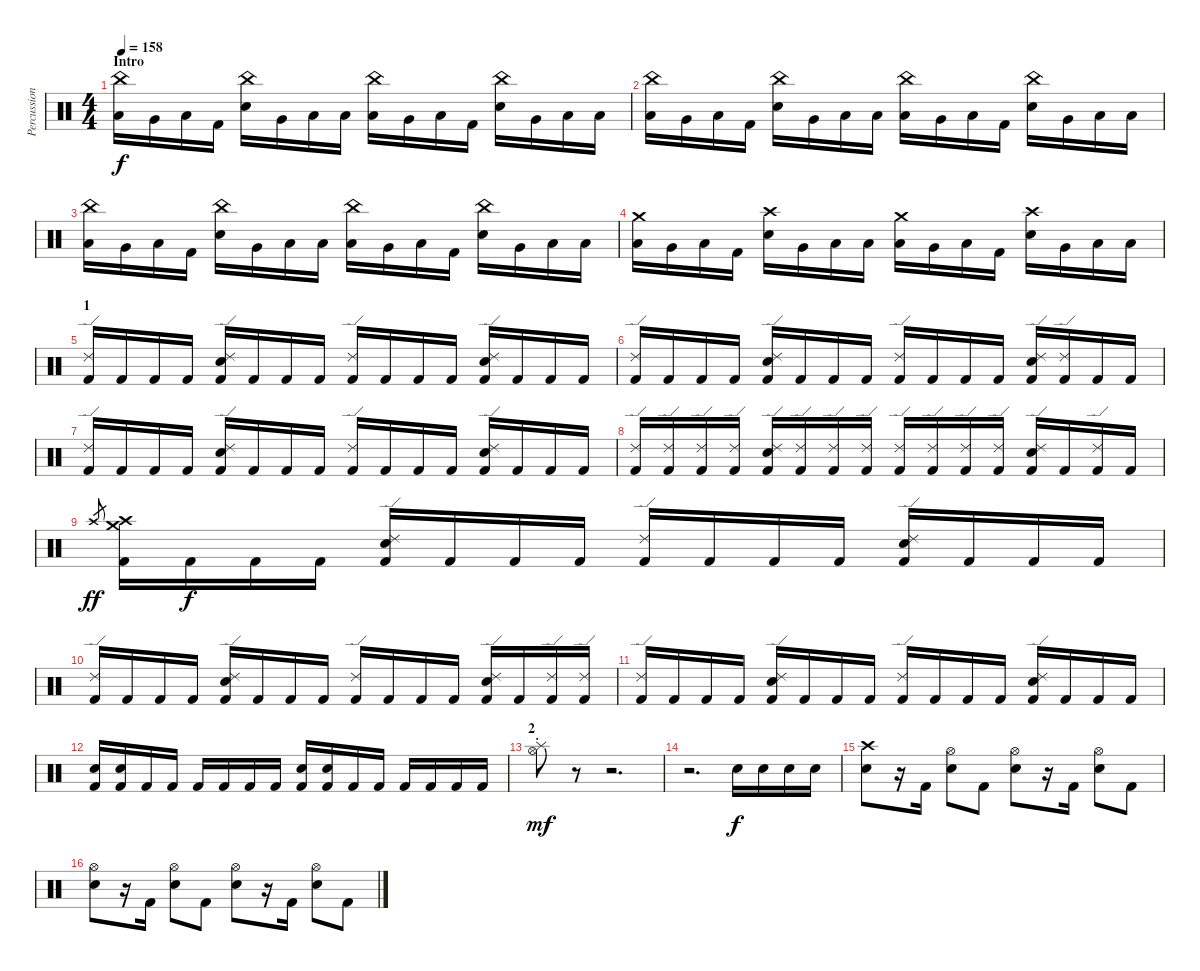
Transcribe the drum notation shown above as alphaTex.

\track ("Percussions" "Percussion") {instrument percussion}
\staff {score}
\articulation defaults
\ts (4 4)
\section ("" "Intro")
\tempo 158
\clef neutral
\ks c
("China (hit)" "Low Tom (hit)").16{dy f} "Very Low Tom (hit)".16 "Low Floor Tom (hit)".16 "Kick (hit) 2".16 ("China (hit)" "Electric Snare (hit)").16 "Very Low Tom (hit)".16 "Low Floor Tom (hit)".16 "Low Floor Tom (hit)".16 ("China (hit)" "Low Tom (hit)").16 "Very Low Tom (hit)".16 "Low Floor Tom (hit)".16 "Kick (hit) 2".16 ("China (hit)" "Electric Snare (hit)").16 "Very Low Tom (hit)".16 "Low Floor Tom (hit)".16 "Low Floor Tom (hit)".16 |
("China (hit)" "Low Tom (hit)").16 "Very Low Tom (hit)".16 "Low Floor Tom (hit)".16 "Kick (hit) 2".16 ("China (hit)" "Electric Snare (hit)").16 "Very Low Tom (hit)".16 "Low Floor Tom (hit)".16 "Low Floor Tom (hit)".16 ("China (hit)" "Low Tom (hit)").16 "Very Low Tom (hit)".16 "Low Floor Tom (hit)".16 "Kick (hit) 2".16 ("China (hit)" "Electric Snare (hit)").16 "Very Low Tom (hit)".16 "Low Floor Tom (hit)".16 "Low Floor Tom (hit)".16 |
("China (hit)" "Low Tom (hit)").16 "Very Low Tom (hit)".16 "Low Floor Tom (hit)".16 "Kick (hit) 2".16 ("China (hit)" "Electric Snare (hit)").16 "Very Low Tom (hit)".16 "Low Floor Tom (hit)".16 "Low Floor Tom (hit)".16 ("China (hit)" "Low Tom (hit)").16 "Very Low Tom (hit)".16 "Low Floor Tom (hit)".16 "Kick (hit) 2".16 ("China (hit)" "Electric Snare (hit)").16 "Very Low Tom (hit)".16 "Low Floor Tom (hit)".16 "Low Floor Tom (hit)".16 |
("Crash medium (hit)" "Low Tom (hit)").16 "Very Low Tom (hit)".16 "Low Floor Tom (hit)".16 "Kick (hit) 2".16 ("Crash high (hit)" "Electric Snare (hit)").16 "Very Low Tom (hit)".16 "Low Floor Tom (hit)".16 "Low Floor Tom (hit)".16 ("Crash medium (hit)" "Low Tom (hit)").16 "Very Low Tom (hit)".16 "Low Floor Tom (hit)".16 "Kick (hit) 2".16 ("Crash high (hit)" "Electric Snare (hit)").16 "Very Low Tom (hit)".16 "Low Floor Tom (hit)".16 "Low Floor Tom (hit)".16 |
\section ("" "1")
("Ride (edge) 2" "Kick (hit) 2").16 "Kick (hit) 2".16 "Kick (hit) 2".16 "Kick (hit) 2".16 ("Ride (edge) 2" "Electric Snare (hit)" "Kick (hit) 2").16 "Kick (hit) 2".16 "Kick (hit) 2".16 "Kick (hit) 2".16 ("Ride (edge) 2" "Kick (hit) 2").16 "Kick (hit) 2".16 "Kick (hit) 2".16 "Kick (hit) 2".16 ("Ride (edge) 2" "Electric Snare (hit)" "Kick (hit) 2").16 "Kick (hit) 2".16 "Kick (hit) 2".16 "Kick (hit) 2".16 |
("Ride (edge) 2" "Kick (hit) 2").16 "Kick (hit) 2".16 "Kick (hit) 2".16 "Kick (hit) 2".16 ("Ride (edge) 2" "Electric Snare (hit)" "Kick (hit) 2").16 "Kick (hit) 2".16 "Kick (hit) 2".16 "Kick (hit) 2".16 ("Ride (edge) 2" "Kick (hit) 2").16 "Kick (hit) 2".16 "Kick (hit) 2".16 "Kick (hit) 2".16 ("Ride (edge) 2" "Electric Snare (hit)" "Kick (hit) 2").16 ("Ride (edge) 2" "Kick (hit) 2").16 "Kick (hit) 2".16 "Kick (hit) 2".16 |
("Ride (edge) 2" "Kick (hit) 2").16 "Kick (hit) 2".16 "Kick (hit) 2".16 "Kick (hit) 2".16 ("Ride (edge) 2" "Electric Snare (hit)" "Kick (hit) 2").16 "Kick (hit) 2".16 "Kick (hit) 2".16 "Kick (hit) 2".16 ("Ride (edge) 2" "Kick (hit) 2").16 "Kick (hit) 2".16 "Kick (hit) 2".16 "Kick (hit) 2".16 ("Ride (edge) 2" "Electric Snare (hit)" "Kick (hit) 2").16 "Kick (hit) 2".16 "Kick (hit) 2".16 "Kick (hit) 2".16 |
("Ride (edge) 2" "Kick (hit) 2").16 ("Ride (edge) 2" "Kick (hit) 2").16 ("Ride (edge) 2" "Kick (hit) 2").16 ("Ride (edge) 2" "Kick (hit) 2").16 ("Ride (edge) 2" "Electric Snare (hit)" "Kick (hit) 2").16 ("Ride (edge) 2" "Kick (hit) 2").16 ("Ride (edge) 2" "Kick (hit) 2").16 ("Ride (edge) 2" "Kick (hit) 2").16 ("Ride (edge) 2" "Kick (hit) 2").16 ("Ride (edge) 2" "Kick (hit) 2").16 ("Ride (edge) 2" "Kick (hit) 2").16 ("Ride (edge) 2" "Kick (hit) 2").16 ("Ride (edge) 2" "Electric Snare (hit)" "Kick (hit) 2").16 "Kick (hit) 2".16 ("Ride (edge) 2" "Kick (hit) 2").16 "Kick (hit) 2".16 |
"Crash high (hit)".8{gr dy ff} ("Crash medium (hit)" "Crash high (hit)" "Kick (hit) 2").16 "Kick (hit) 2".16{dy f} "Kick (hit) 2".16 "Kick (hit) 2".16 ("Ride (edge) 2" "Electric Snare (hit)" "Kick (hit) 2").16 "Kick (hit) 2".16 "Kick (hit) 2".16 "Kick (hit) 2".16 ("Ride (edge) 2" "Kick (hit) 2").16 "Kick (hit) 2".16 "Kick (hit) 2".16 "Kick (hit) 2".16 ("Ride (edge) 2" "Electric Snare (hit)" "Kick (hit) 2").16 "Kick (hit) 2".16 "Kick (hit) 2".16 "Kick (hit) 2".16 |
("Ride (edge) 2" "Kick (hit) 2").16 "Kick (hit) 2".16 "Kick (hit) 2".16 "Kick (hit) 2".16 ("Ride (edge) 2" "Electric Snare (hit)" "Kick (hit) 2").16 "Kick (hit) 2".16 "Kick (hit) 2".16 "Kick (hit) 2".16 ("Ride (edge) 2" "Kick (hit) 2").16 "Kick (hit) 2".16 "Kick (hit) 2".16 "Kick (hit) 2".16 ("Ride (edge) 2" "Electric Snare (hit)" "Kick (hit) 2").16 "Kick (hit) 2".16 ("Ride (edge) 2" "Kick (hit) 2").16 ("Ride (edge) 2" "Kick (hit) 2").16 |
("Ride (edge) 2" "Kick (hit) 2").16 "Kick (hit) 2".16 "Kick (hit) 2".16 "Kick (hit) 2".16 ("Ride (edge) 2" "Electric Snare (hit)" "Kick (hit) 2").16 "Kick (hit) 2".16 "Kick (hit) 2".16 "Kick (hit) 2".16 ("Ride (edge) 2" "Kick (hit) 2").16 "Kick (hit) 2".16 "Kick (hit) 2".16 "Kick (hit) 2".16 ("Ride (edge) 2" "Electric Snare (hit)" "Kick (hit) 2").16 "Kick (hit) 2".16 "Kick (hit) 2".16 "Kick (hit) 2".16 |
("Electric Snare (hit)" "Kick (hit) 2").16 ("Electric Snare (hit)" "Kick (hit) 2").16 "Kick (hit) 2".16 "Kick (hit) 2".16 "Kick (hit) 2".16 "Kick (hit) 2".16 "Kick (hit) 2".16 "Kick (hit) 2".16 ("Electric Snare (hit)" "Kick (hit) 2").16 ("Electric Snare (hit)" "Kick (hit) 2").16 "Kick (hit) 2".16 "Kick (hit) 2".16 "Kick (hit) 2".16 "Kick (hit) 2".16 "Kick (hit) 2".16 "Kick (hit) 2".16 |
\section ("" "2")
("Splash (hit)"{st} "Hi-Hat (open)"{st}).8{dy mf} r.8 r.2{d} |
r.2{d} "Electric Snare (hit)".16{dy f} "Electric Snare (hit)".16 "Electric Snare (hit)".16 "Electric Snare (hit)".16 |
("Crash high (hit)" "Electric Snare (hit)").8 r.16 "Kick (hit) 2".16 ("Hi-Hat (open)" "Electric Snare (hit)").8 "Kick (hit) 2".8 ("Hi-Hat (open)" "Electric Snare (hit)").8 r.16 "Kick (hit) 2".16 ("Hi-Hat (open)" "Electric Snare (hit)").8 "Kick (hit) 2".8 |
("Hi-Hat (open)" "Electric Snare (hit)").8 r.16 "Kick (hit) 2".16 ("Hi-Hat (open)" "Electric Snare (hit)").8 "Kick (hit) 2".8 ("Hi-Hat (open)" "Electric Snare (hit)").8 r.16 "Kick (hit) 2".16 ("Hi-Hat (open)" "Electric Snare (hit)").8 "Kick (hit) 2".8
